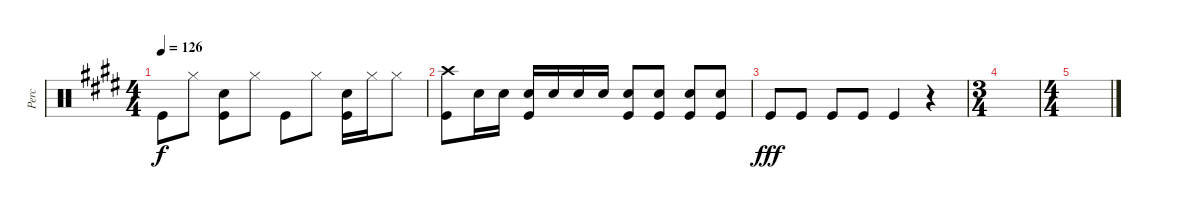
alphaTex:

\track ("Perc" "Perc") {instrument percussion}
\staff {score}
\articulation defaults
\ts (4 4)
\tempo 126
\clef neutral
\ks e "Kick (hit)".8{dy f} "Hi-Hat (closed)".8
("Snare (hit) 2" "Kick (hit)").8 "Hi-Hat (closed)".8 "Kick (hit)".8 "Hi-Hat (closed)".8 ("Snare (hit) 2" "Kick (hit)").16 "Hi-Hat (closed)".16 "Hi-Hat (closed)".8 |
("Crash high (hit)" "Kick (hit)").8 "Snare (hit) 2".16 "Snare (hit) 2".16 ("Snare (hit) 2" "Kick (hit)").16 "Snare (hit) 2".16 "Snare (hit) 2".16 "Snare (hit) 2".16 ("Snare (hit) 2" "Kick (hit)").8 ("Snare (hit) 2" "Kick (hit)").8 ("Snare (hit) 2" "Kick (hit)").8 ("Snare (hit) 2" "Kick (hit)").8 |
"Kick (hit)".8{dy fff} "Kick (hit)".8 "Kick (hit)".8 "Kick (hit)".8 "Kick (hit)".4 r.4 |
\ts (3 4)
|
\ts (4 4)
